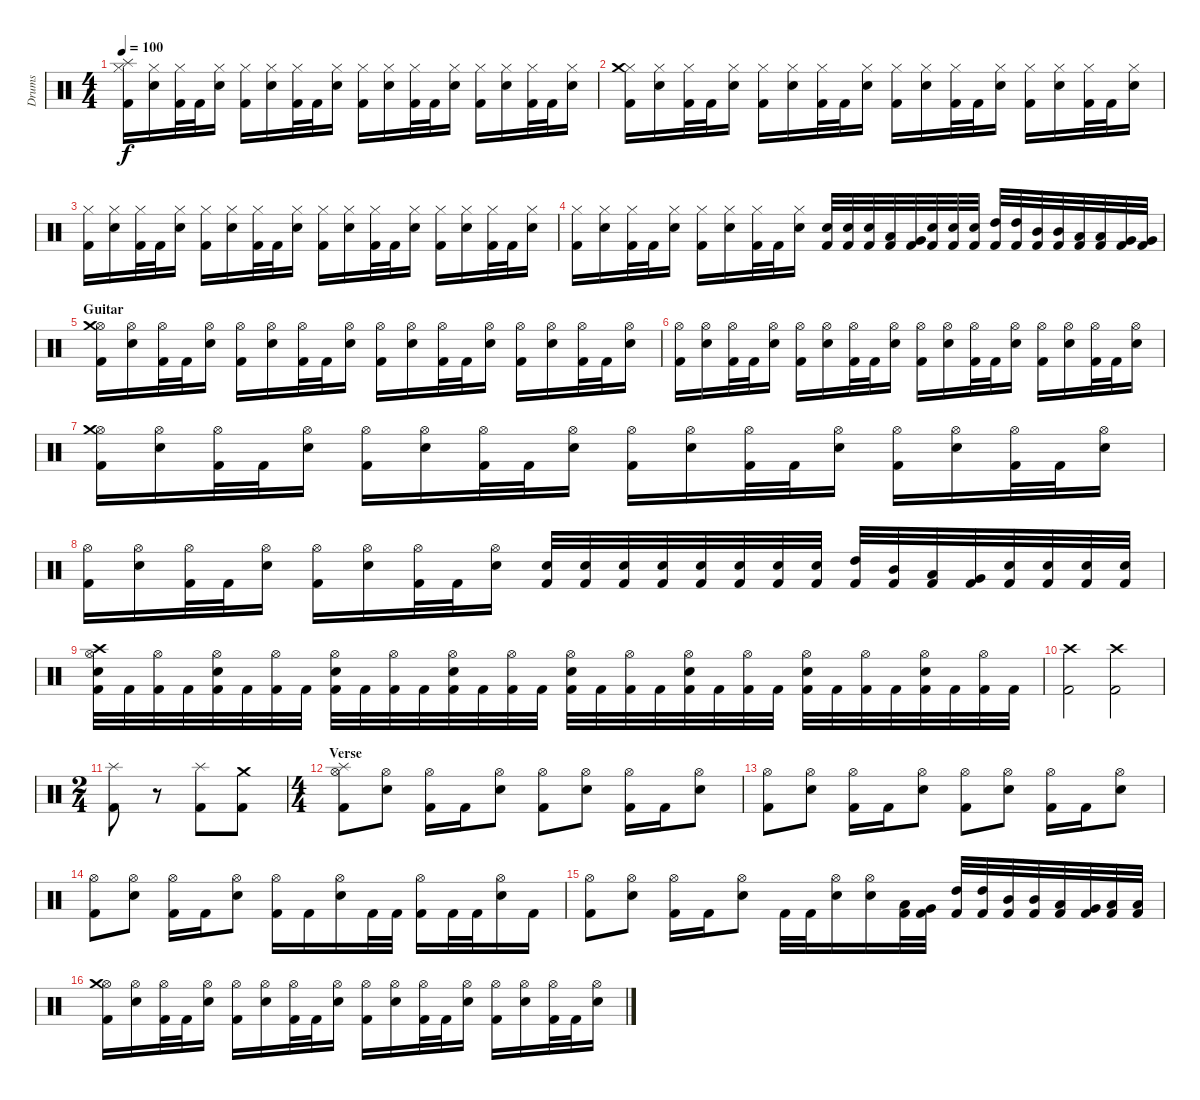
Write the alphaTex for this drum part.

\track ("Drums" "Drums") {instrument percussion}
\staff {score}
\articulation defaults
\ts (4 4)
\tempo 100
\clef neutral
\ks c
("Kick (hit) 2" "Hi-Hat (closed)" "Splash (hit)").16{dy f} ("Snare (hit) 2" "Hi-Hat (closed)").16 ("Kick (hit) 2" "Hi-Hat (closed)").32 "Kick (hit) 2".32 ("Snare (hit) 2" "Hi-Hat (closed)").16 ("Kick (hit) 2" "Hi-Hat (closed)").16 ("Snare (hit) 2" "Hi-Hat (closed)").16 ("Kick (hit) 2" "Hi-Hat (closed)").32 "Kick (hit) 2".32 ("Snare (hit) 2" "Hi-Hat (closed)").16 ("Kick (hit) 2" "Hi-Hat (closed)").16 ("Snare (hit) 2" "Hi-Hat (closed)").16 ("Kick (hit) 2" "Hi-Hat (closed)").32 "Kick (hit) 2".32 ("Snare (hit) 2" "Hi-Hat (closed)").16 ("Kick (hit) 2" "Hi-Hat (closed)").16 ("Snare (hit) 2" "Hi-Hat (closed)").16 ("Kick (hit) 2" "Hi-Hat (closed)").32 "Kick (hit) 2".32 ("Snare (hit) 2" "Hi-Hat (closed)").16 |
("Kick (hit) 2" "Hi-Hat (closed)" "Crash medium (hit)").16 ("Snare (hit) 2" "Hi-Hat (closed)").16 ("Kick (hit) 2" "Hi-Hat (closed)").32 "Kick (hit) 2".32 ("Snare (hit) 2" "Hi-Hat (closed)").16 ("Kick (hit) 2" "Hi-Hat (closed)").16 ("Snare (hit) 2" "Hi-Hat (closed)").16 ("Kick (hit) 2" "Hi-Hat (closed)").32 "Kick (hit) 2".32 ("Snare (hit) 2" "Hi-Hat (closed)").16 ("Kick (hit) 2" "Hi-Hat (closed)").16 ("Snare (hit) 2" "Hi-Hat (closed)").16 ("Kick (hit) 2" "Hi-Hat (closed)").32 "Kick (hit) 2".32 ("Snare (hit) 2" "Hi-Hat (closed)").16 ("Kick (hit) 2" "Hi-Hat (closed)").16 ("Snare (hit) 2" "Hi-Hat (closed)").16 ("Kick (hit) 2" "Hi-Hat (closed)").32 "Kick (hit) 2".32 ("Snare (hit) 2" "Hi-Hat (closed)").16 |
("Kick (hit) 2" "Hi-Hat (closed)").16 ("Snare (hit) 2" "Hi-Hat (closed)").16 ("Kick (hit) 2" "Hi-Hat (closed)").32 "Kick (hit) 2".32 ("Snare (hit) 2" "Hi-Hat (closed)").16 ("Kick (hit) 2" "Hi-Hat (closed)").16 ("Snare (hit) 2" "Hi-Hat (closed)").16 ("Kick (hit) 2" "Hi-Hat (closed)").32 "Kick (hit) 2".32 ("Snare (hit) 2" "Hi-Hat (closed)").16 ("Kick (hit) 2" "Hi-Hat (closed)").16 ("Snare (hit) 2" "Hi-Hat (closed)").16 ("Kick (hit) 2" "Hi-Hat (closed)").32 "Kick (hit) 2".32 ("Snare (hit) 2" "Hi-Hat (closed)").16 ("Kick (hit) 2" "Hi-Hat (closed)").16 ("Snare (hit) 2" "Hi-Hat (closed)").16 ("Kick (hit) 2" "Hi-Hat (closed)").32 "Kick (hit) 2".32 ("Snare (hit) 2" "Hi-Hat (closed)").16 |
("Kick (hit) 2" "Hi-Hat (closed)").16 ("Snare (hit) 2" "Hi-Hat (closed)").16 ("Kick (hit) 2" "Hi-Hat (closed)").32 "Kick (hit) 2".32 ("Snare (hit) 2" "Hi-Hat (closed)").16 ("Kick (hit) 2" "Hi-Hat (closed)").16 ("Snare (hit) 2" "Hi-Hat (closed)").16 ("Kick (hit) 2" "Hi-Hat (closed)").32 "Kick (hit) 2".32 ("Snare (hit) 2" "Hi-Hat (closed)").16 ("Kick (hit) 2" "Snare (hit) 2").32 ("Kick (hit) 2" "Snare (hit) 2").32 ("Kick (hit) 2" "Snare (hit) 2").32 ("Kick (hit) 2" "Low Tom (hit)").32 ("Kick (hit) 2" "Very Low Tom (hit)").32 ("Kick (hit) 2" "Snare (hit) 2").32 ("Kick (hit) 2" "Snare (hit) 2").32 ("Kick (hit) 2" "Snare (hit) 2").32 ("Kick (hit) 2" "High Tom (hit)").32 ("Kick (hit) 2" "High Tom (hit)").32 ("Kick (hit) 2" "Mid Tom (hit)").32 ("Kick (hit) 2" "Mid Tom (hit)").32 ("Kick (hit) 2" "Low Tom (hit)").32 ("Kick (hit) 2" "Low Tom (hit)").32 ("Kick (hit) 2" "Very Low Tom (hit)").32 ("Kick (hit) 2" "Very Low Tom (hit)").32 |
\section ("" "Guitar")
("Kick (hit) 2" "Hi-Hat (open)" "Crash medium (hit)").16 ("Snare (hit) 2" "Hi-Hat (open)").16 ("Kick (hit) 2" "Hi-Hat (open)").32 "Kick (hit) 2".32 ("Snare (hit) 2" "Hi-Hat (open)").16 ("Kick (hit) 2" "Hi-Hat (open)").16 ("Snare (hit) 2" "Hi-Hat (open)").16 ("Kick (hit) 2" "Hi-Hat (open)").32 "Kick (hit) 2".32 ("Snare (hit) 2" "Hi-Hat (open)").16 ("Kick (hit) 2" "Hi-Hat (open)").16 ("Snare (hit) 2" "Hi-Hat (open)").16 ("Kick (hit) 2" "Hi-Hat (open)").32 "Kick (hit) 2".32 ("Snare (hit) 2" "Hi-Hat (open)").16 ("Kick (hit) 2" "Hi-Hat (open)").16 ("Snare (hit) 2" "Hi-Hat (open)").16 ("Kick (hit) 2" "Hi-Hat (open)").32 "Kick (hit) 2".32 ("Snare (hit) 2" "Hi-Hat (open)").16 |
("Kick (hit) 2" "Hi-Hat (open)").16 ("Snare (hit) 2" "Hi-Hat (open)").16 ("Kick (hit) 2" "Hi-Hat (open)").32 "Kick (hit) 2".32 ("Snare (hit) 2" "Hi-Hat (open)").16 ("Kick (hit) 2" "Hi-Hat (open)").16 ("Snare (hit) 2" "Hi-Hat (open)").16 ("Kick (hit) 2" "Hi-Hat (open)").32 "Kick (hit) 2".32 ("Snare (hit) 2" "Hi-Hat (open)").16 ("Kick (hit) 2" "Hi-Hat (open)").16 ("Snare (hit) 2" "Hi-Hat (open)").16 ("Kick (hit) 2" "Hi-Hat (open)").32 "Kick (hit) 2".32 ("Snare (hit) 2" "Hi-Hat (open)").16 ("Kick (hit) 2" "Hi-Hat (open)").16 ("Snare (hit) 2" "Hi-Hat (open)").16 ("Kick (hit) 2" "Hi-Hat (open)").32 "Kick (hit) 2".32 ("Snare (hit) 2" "Hi-Hat (open)").16 |
("Kick (hit) 2" "Hi-Hat (open)" "Crash medium (hit)").16 ("Snare (hit) 2" "Hi-Hat (open)").16 ("Kick (hit) 2" "Hi-Hat (open)").32 "Kick (hit) 2".32 ("Snare (hit) 2" "Hi-Hat (open)").16 ("Kick (hit) 2" "Hi-Hat (open)").16 ("Snare (hit) 2" "Hi-Hat (open)").16 ("Kick (hit) 2" "Hi-Hat (open)").32 "Kick (hit) 2".32 ("Snare (hit) 2" "Hi-Hat (open)").16 ("Kick (hit) 2" "Hi-Hat (open)").16 ("Snare (hit) 2" "Hi-Hat (open)").16 ("Kick (hit) 2" "Hi-Hat (open)").32 "Kick (hit) 2".32 ("Snare (hit) 2" "Hi-Hat (open)").16 ("Kick (hit) 2" "Hi-Hat (open)").16 ("Snare (hit) 2" "Hi-Hat (open)").16 ("Kick (hit) 2" "Hi-Hat (open)").32 "Kick (hit) 2".32 ("Snare (hit) 2" "Hi-Hat (open)").16 |
("Kick (hit) 2" "Hi-Hat (open)").16 ("Snare (hit) 2" "Hi-Hat (open)").16 ("Kick (hit) 2" "Hi-Hat (open)").32 "Kick (hit) 2".32 ("Snare (hit) 2" "Hi-Hat (open)").16 ("Kick (hit) 2" "Hi-Hat (open)").16 ("Snare (hit) 2" "Hi-Hat (open)").16 ("Kick (hit) 2" "Hi-Hat (open)").32 "Kick (hit) 2".32 ("Snare (hit) 2" "Hi-Hat (open)").16 ("Kick (hit) 2" "Snare (hit) 2").32 ("Kick (hit) 2" "Snare (hit) 2").32 ("Kick (hit) 2" "Snare (hit) 2").32 ("Kick (hit) 2" "Snare (hit) 2").32 ("Kick (hit) 2" "Snare (hit) 2").32 ("Kick (hit) 2" "Snare (hit) 2").32 ("Kick (hit) 2" "Snare (hit) 2").32 ("Kick (hit) 2" "Snare (hit) 2").32 ("Kick (hit) 2" "High Tom (hit)").32 ("Kick (hit) 2" "Mid Tom (hit)").32 ("Kick (hit) 2" "Low Tom (hit)").32 ("Kick (hit) 2" "Very Low Tom (hit)").32 ("Kick (hit) 2" "Snare (hit) 2").32 ("Kick (hit) 2" "Snare (hit) 2").32 ("Kick (hit) 2" "Snare (hit) 2").32 ("Kick (hit) 2" "Snare (hit) 2").32 |
("Kick (hit) 2" "Snare (hit) 2" "Hi-Hat (open)" "Crash high (hit)").32 "Kick (hit) 2".32 ("Kick (hit) 2" "Hi-Hat (open)").32 "Kick (hit) 2".32 ("Kick (hit) 2" "Snare (hit) 2" "Hi-Hat (open)").32 "Kick (hit) 2".32 ("Kick (hit) 2" "Hi-Hat (open)").32 "Kick (hit) 2".32 ("Kick (hit) 2" "Snare (hit) 2" "Hi-Hat (open)").32 "Kick (hit) 2".32 ("Kick (hit) 2" "Hi-Hat (open)").32 "Kick (hit) 2".32 ("Kick (hit) 2" "Snare (hit) 2" "Hi-Hat (open)").32 "Kick (hit) 2".32 ("Kick (hit) 2" "Hi-Hat (open)").32 "Kick (hit) 2".32 ("Kick (hit) 2" "Snare (hit) 2" "Hi-Hat (open)").32 "Kick (hit) 2".32 ("Kick (hit) 2" "Hi-Hat (open)").32 "Kick (hit) 2".32 ("Kick (hit) 2" "Snare (hit) 2" "Hi-Hat (open)").32 "Kick (hit) 2".32 ("Kick (hit) 2" "Hi-Hat (open)").32 "Kick (hit) 2".32 ("Kick (hit) 2" "Snare (hit) 2" "Hi-Hat (open)").32 "Kick (hit) 2".32 ("Kick (hit) 2" "Hi-Hat (open)").32 "Kick (hit) 2".32 ("Kick (hit) 2" "Snare (hit) 2" "Hi-Hat (open)").32 "Kick (hit) 2".32 ("Kick (hit) 2" "Hi-Hat (open)").32 "Kick (hit) 2".32 |
("Kick (hit) 2" "Crash high (hit)").2 ("Kick (hit) 2" "Crash high (hit)").2 |
\ts (2 4)
("Kick (hit) 2" "Splash (hit)").8 r.8 ("Kick (hit) 2" "Splash (hit)").8 ("Kick (hit) 2" "Crash medium (hit)").8 |
\ts (4 4)
\section ("" "Verse")
("Kick (hit) 2" "Hi-Hat (open)" "Splash (hit)").8 ("Snare (hit) 2" "Hi-Hat (open)").8 ("Kick (hit) 2" "Hi-Hat (open)").16 "Kick (hit) 2".16 ("Snare (hit) 2" "Hi-Hat (open)").8 ("Kick (hit) 2" "Hi-Hat (open)").8 ("Snare (hit) 2" "Hi-Hat (open)").8 ("Kick (hit) 2" "Hi-Hat (open)").16 "Kick (hit) 2".16 ("Snare (hit) 2" "Hi-Hat (open)").8 |
("Kick (hit) 2" "Hi-Hat (open)").8 ("Snare (hit) 2" "Hi-Hat (open)").8 ("Kick (hit) 2" "Hi-Hat (open)").16 "Kick (hit) 2".16 ("Snare (hit) 2" "Hi-Hat (open)").8 ("Kick (hit) 2" "Hi-Hat (open)").8 ("Snare (hit) 2" "Hi-Hat (open)").8 ("Kick (hit) 2" "Hi-Hat (open)").16 "Kick (hit) 2".16 ("Snare (hit) 2" "Hi-Hat (open)").8 |
("Kick (hit) 2" "Hi-Hat (open)").8 ("Snare (hit) 2" "Hi-Hat (open)").8 ("Kick (hit) 2" "Hi-Hat (open)").16 "Kick (hit) 2".16 ("Snare (hit) 2" "Hi-Hat (open)").8 ("Kick (hit) 2" "Hi-Hat (open)").16 "Kick (hit) 2".16 ("Snare (hit) 2" "Hi-Hat (open)").16 "Kick (hit) 2".32 "Kick (hit) 2".32 ("Kick (hit) 2" "Hi-Hat (open)").16 "Kick (hit) 2".32 "Kick (hit) 2".32 ("Snare (hit) 2" "Hi-Hat (open)").16 "Kick (hit) 2".16 |
("Kick (hit) 2" "Hi-Hat (open)").8 ("Snare (hit) 2" "Hi-Hat (open)").8 ("Kick (hit) 2" "Hi-Hat (open)").16 "Kick (hit) 2".16 ("Snare (hit) 2" "Hi-Hat (open)").8 "Kick (hit) 2".32 "Kick (hit) 2".32 ("Snare (hit) 2" "Hi-Hat (open)").16 ("Snare (hit) 2" "Hi-Hat (open)").16 ("Kick (hit) 2" "Low Tom (hit)").32 ("Kick (hit) 2" "Very Low Tom (hit)").32 ("Kick (hit) 2" "High Tom (hit)").32 ("Kick (hit) 2" "High Tom (hit)").32 ("Kick (hit) 2" "Mid Tom (hit)").32 ("Kick (hit) 2" "Mid Tom (hit)").32 ("Kick (hit) 2" "Low Tom (hit)").32 ("Kick (hit) 2" "Very Low Tom (hit)").32 ("Kick (hit) 2" "Low Floor Tom (hit)").32 ("Kick (hit) 2" "Low Floor Tom (hit)").32 |
\section ("" "")
("Kick (hit) 2" "Hi-Hat (open)" "Crash medium (hit)").16 ("Snare (hit) 2" "Hi-Hat (open)").16 ("Kick (hit) 2" "Hi-Hat (open)").32 "Kick (hit) 2".32 ("Snare (hit) 2" "Hi-Hat (open)").16 ("Kick (hit) 2" "Hi-Hat (open)").16 ("Snare (hit) 2" "Hi-Hat (open)").16 ("Kick (hit) 2" "Hi-Hat (open)").32 "Kick (hit) 2".32 ("Snare (hit) 2" "Hi-Hat (open)").16 ("Kick (hit) 2" "Hi-Hat (open)").16 ("Snare (hit) 2" "Hi-Hat (open)").16 ("Kick (hit) 2" "Hi-Hat (open)").32 "Kick (hit) 2".32 ("Snare (hit) 2" "Hi-Hat (open)").16 ("Kick (hit) 2" "Hi-Hat (open)").16 ("Snare (hit) 2" "Hi-Hat (open)").16 ("Kick (hit) 2" "Hi-Hat (open)").32 "Kick (hit) 2".32 ("Snare (hit) 2" "Hi-Hat (open)").16
